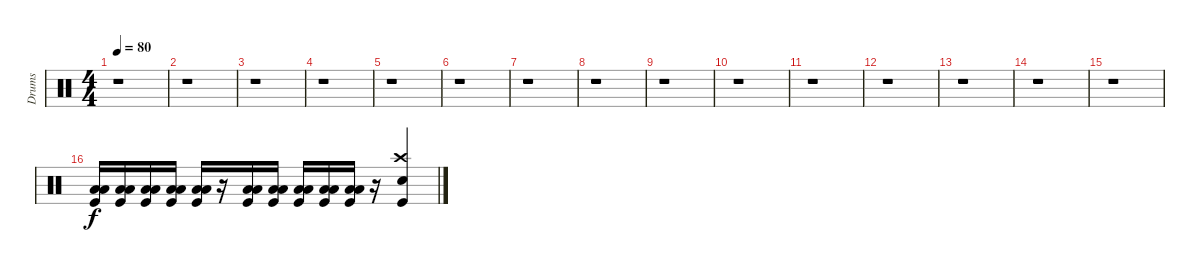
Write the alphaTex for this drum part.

\track ("Drums" "Drums") {instrument percussion}
\staff {score}
\articulation defaults
\ts (4 4)
\tempo 80
\clef neutral
\ks c
r.1{dy f} |
r.1 |
r.1 |
r.1 |
r.1 |
r.1 |
r.1 |
r.1 |
r.1 |
r.1 |
r.1 |
r.1 |
r.1 |
r.1 |
r.1 |
("Low Tom (hit)" "Low Floor Tom (hit)" "Kick (hit)").16 ("Low Floor Tom (hit)" "Low Tom (hit)" "Kick (hit)").16 ("Low Floor Tom (hit)" "Low Tom (hit)" "Kick (hit)").16 ("Low Tom (hit)" "Low Floor Tom (hit)" "Kick (hit)").16 ("Low Floor Tom (hit)" "Low Tom (hit)" "Kick (hit)").16 r.16 ("Low Tom (hit)" "Low Floor Tom (hit)" "Kick (hit)").16 ("Low Floor Tom (hit)" "Low Tom (hit)" "Kick (hit)").16 ("Low Tom (hit)" "Low Floor Tom (hit)" "Kick (hit)").16 ("Low Floor Tom (hit)" "Low Tom (hit)" "Kick (hit)").16 ("Low Floor Tom (hit)" "Low Tom (hit)" "Kick (hit)").16 r.16 ("Crash high (hit)" "Electric Snare (hit)" "Kick (hit)").4
